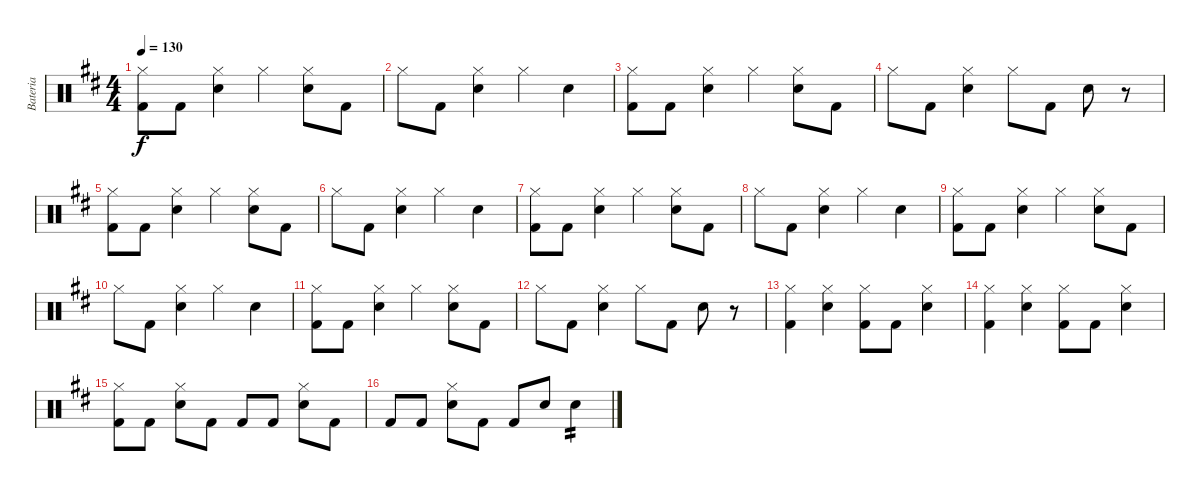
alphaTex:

\track ("Bateria" "Bateria") {instrument percussion}
\staff {score}
\articulation defaults
\ts (4 4)
\tempo 130
\clef neutral
\ks d
("Hi-Hat (closed)" "Kick (hit) 2").8{dy f} "Kick (hit) 2".8 ("Hi-Hat (closed)" "Electric Snare (hit)").4 "Hi-Hat (closed)".4 ("Hi-Hat (closed)" "Electric Snare (hit)").8 "Kick (hit) 2".8 |
"Hi-Hat (closed)".8 "Kick (hit) 2".8 ("Hi-Hat (closed)" "Electric Snare (hit)").4 "Hi-Hat (closed)".4 "Electric Snare (hit)".4 |
("Hi-Hat (closed)" "Kick (hit) 2").8 "Kick (hit) 2".8 ("Hi-Hat (closed)" "Electric Snare (hit)").4 "Hi-Hat (closed)".4 ("Hi-Hat (closed)" "Electric Snare (hit)").8 "Kick (hit) 2".8 |
"Hi-Hat (closed)".8 "Kick (hit) 2".8 ("Hi-Hat (closed)" "Electric Snare (hit)").4 "Hi-Hat (closed)".8 "Kick (hit) 2".8 "Electric Snare (hit)".8 r.8 |
("Hi-Hat (closed)" "Kick (hit) 2").8 "Kick (hit) 2".8 ("Hi-Hat (closed)" "Electric Snare (hit)").4 "Hi-Hat (closed)".4 ("Hi-Hat (closed)" "Electric Snare (hit)").8 "Kick (hit) 2".8 |
"Hi-Hat (closed)".8 "Kick (hit) 2".8 ("Hi-Hat (closed)" "Electric Snare (hit)").4 "Hi-Hat (closed)".4 "Electric Snare (hit)".4 |
("Hi-Hat (closed)" "Kick (hit) 2").8 "Kick (hit) 2".8 ("Hi-Hat (closed)" "Electric Snare (hit)").4 "Hi-Hat (closed)".4 ("Hi-Hat (closed)" "Electric Snare (hit)").8 "Kick (hit) 2".8 |
"Hi-Hat (closed)".8 "Kick (hit) 2".8 ("Hi-Hat (closed)" "Electric Snare (hit)").4 "Hi-Hat (closed)".4 "Electric Snare (hit)".4 |
("Hi-Hat (closed)" "Kick (hit) 2").8 "Kick (hit) 2".8 ("Hi-Hat (closed)" "Electric Snare (hit)").4 "Hi-Hat (closed)".4 ("Hi-Hat (closed)" "Electric Snare (hit)").8 "Kick (hit) 2".8 |
"Hi-Hat (closed)".8 "Kick (hit) 2".8 ("Hi-Hat (closed)" "Electric Snare (hit)").4 "Hi-Hat (closed)".4 "Electric Snare (hit)".4 |
("Hi-Hat (closed)" "Kick (hit) 2").8 "Kick (hit) 2".8 ("Hi-Hat (closed)" "Electric Snare (hit)").4 "Hi-Hat (closed)".4 ("Hi-Hat (closed)" "Electric Snare (hit)").8 "Kick (hit) 2".8 |
"Hi-Hat (closed)".8 "Kick (hit) 2".8 ("Hi-Hat (closed)" "Electric Snare (hit)").4 "Hi-Hat (closed)".8 "Kick (hit) 2".8 "Electric Snare (hit)".8 r.8 |
("Hi-Hat (closed)" "Kick (hit) 2").4 ("Hi-Hat (closed)" "Electric Snare (hit)").4 ("Hi-Hat (closed)" "Kick (hit) 2").8 "Kick (hit) 2".8 ("Hi-Hat (closed)" "Electric Snare (hit)").4 |
("Hi-Hat (closed)" "Kick (hit) 2").4 ("Hi-Hat (closed)" "Electric Snare (hit)").4 ("Hi-Hat (closed)" "Kick (hit) 2").8 "Kick (hit) 2".8 ("Hi-Hat (closed)" "Electric Snare (hit)").4 |
("Hi-Hat (closed)" "Kick (hit) 2").8 "Kick (hit) 2".8 ("Hi-Hat (closed)" "Electric Snare (hit)").8 "Kick (hit) 2".8 "Kick (hit) 2".8 "Kick (hit) 2".8 ("Hi-Hat (closed)" "Electric Snare (hit)").8 "Kick (hit) 2".8 |
"Kick (hit) 2".8 "Kick (hit) 2".8 ("Hi-Hat (closed)" "Electric Snare (hit)").8 "Kick (hit) 2".8 "Kick (hit) 2".8 "Electric Snare (hit)".8 "Electric Snare (hit)".4{tp 2}
